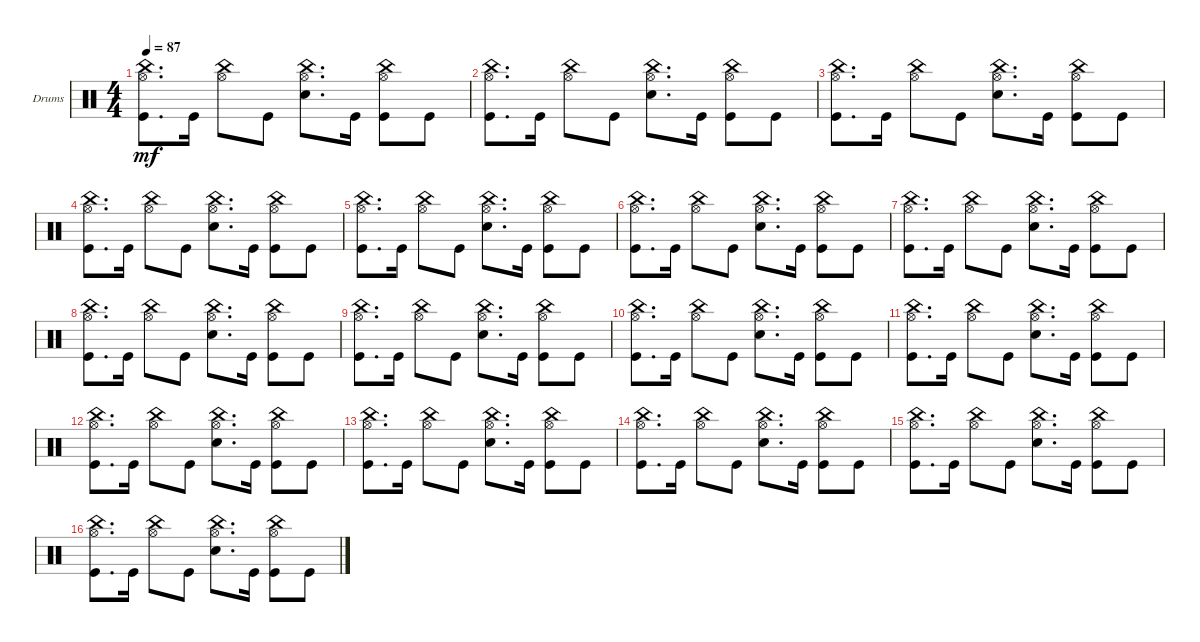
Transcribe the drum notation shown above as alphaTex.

\defaultSystemsLayout 4
\bracketExtendMode groupsimilarinstruments
\firstSystemTrackNameOrientation horizontal
\otherSystemsTrackNameOrientation horizontal
\track ("Drumkit" "Drums") {instrument percussion}
\staff {score}
\articulation defaults
\ts (4 4)
\tempo 87
\clef neutral
\ks c
("Kick (hit)" "China (hit)" "Hi-Hat (open)").8{d dy mf} "Kick (hit)".16 ("China (hit)" "Hi-Hat (open)").8 "Kick (hit)".8 ("Snare (hit) 2" "China (hit)" "Hi-Hat (open)").8{d} "Kick (hit)".16 ("Kick (hit)" "China (hit)" "Hi-Hat (open)").8 "Kick (hit)".8 |
("Kick (hit)" "China (hit)" "Hi-Hat (open)").8{d} "Kick (hit)".16 ("China (hit)" "Hi-Hat (open)").8 "Kick (hit)".8 ("Snare (hit) 2" "China (hit)" "Hi-Hat (open)").8{d} "Kick (hit)".16 ("Kick (hit)" "China (hit)" "Hi-Hat (open)").8 "Kick (hit)".8 |
("Kick (hit)" "China (hit)" "Hi-Hat (open)").8{d} "Kick (hit)".16 ("China (hit)" "Hi-Hat (open)").8 "Kick (hit)".8 ("Snare (hit) 2" "China (hit)" "Hi-Hat (open)").8{d} "Kick (hit)".16 ("Kick (hit)" "China (hit)" "Hi-Hat (open)").8 "Kick (hit)".8 |
("Kick (hit)" "China (hit)" "Hi-Hat (open)").8{d} "Kick (hit)".16 ("China (hit)" "Hi-Hat (open)").8 "Kick (hit)".8 ("Snare (hit) 2" "China (hit)" "Hi-Hat (open)").8{d} "Kick (hit)".16 ("Kick (hit)" "China (hit)" "Hi-Hat (open)").8 "Kick (hit)".8 |
("Kick (hit)" "China (hit)" "Hi-Hat (open)").8{d} "Kick (hit)".16 ("China (hit)" "Hi-Hat (open)").8 "Kick (hit)".8 ("Snare (hit) 2" "China (hit)" "Hi-Hat (open)").8{d} "Kick (hit)".16 ("Kick (hit)" "China (hit)" "Hi-Hat (open)").8 "Kick (hit)".8 |
("Kick (hit)" "China (hit)" "Hi-Hat (open)").8{d} "Kick (hit)".16 ("China (hit)" "Hi-Hat (open)").8 "Kick (hit)".8 ("Snare (hit) 2" "China (hit)" "Hi-Hat (open)").8{d} "Kick (hit)".16 ("Kick (hit)" "China (hit)" "Hi-Hat (open)").8 "Kick (hit)".8 |
("Kick (hit)" "China (hit)" "Hi-Hat (open)").8{d} "Kick (hit)".16 ("China (hit)" "Hi-Hat (open)").8 "Kick (hit)".8 ("Snare (hit) 2" "China (hit)" "Hi-Hat (open)").8{d} "Kick (hit)".16 ("Kick (hit)" "China (hit)" "Hi-Hat (open)").8 "Kick (hit)".8 |
("Kick (hit)" "China (hit)" "Hi-Hat (open)").8{d} "Kick (hit)".16 ("China (hit)" "Hi-Hat (open)").8 "Kick (hit)".8 ("Snare (hit) 2" "China (hit)" "Hi-Hat (open)").8{d} "Kick (hit)".16 ("Kick (hit)" "China (hit)" "Hi-Hat (open)").8 "Kick (hit)".8 |
("Kick (hit)" "China (hit)" "Hi-Hat (open)").8{d} "Kick (hit)".16 ("China (hit)" "Hi-Hat (open)").8 "Kick (hit)".8 ("Snare (hit) 2" "China (hit)" "Hi-Hat (open)").8{d} "Kick (hit)".16 ("Kick (hit)" "China (hit)" "Hi-Hat (open)").8 "Kick (hit)".8 |
("Kick (hit)" "China (hit)" "Hi-Hat (open)").8{d} "Kick (hit)".16 ("China (hit)" "Hi-Hat (open)").8 "Kick (hit)".8 ("Snare (hit) 2" "China (hit)" "Hi-Hat (open)").8{d} "Kick (hit)".16 ("Kick (hit)" "China (hit)" "Hi-Hat (open)").8 "Kick (hit)".8 |
("Kick (hit)" "China (hit)" "Hi-Hat (open)").8{d} "Kick (hit)".16 ("China (hit)" "Hi-Hat (open)").8 "Kick (hit)".8 ("Snare (hit) 2" "China (hit)" "Hi-Hat (open)").8{d} "Kick (hit)".16 ("Kick (hit)" "China (hit)" "Hi-Hat (open)").8 "Kick (hit)".8 |
("Kick (hit)" "China (hit)" "Hi-Hat (open)").8{d} "Kick (hit)".16 ("China (hit)" "Hi-Hat (open)").8 "Kick (hit)".8 ("Snare (hit) 2" "China (hit)" "Hi-Hat (open)").8{d} "Kick (hit)".16 ("Kick (hit)" "China (hit)" "Hi-Hat (open)").8 "Kick (hit)".8 |
("Kick (hit)" "China (hit)" "Hi-Hat (open)").8{d} "Kick (hit)".16 ("China (hit)" "Hi-Hat (open)").8 "Kick (hit)".8 ("Snare (hit) 2" "China (hit)" "Hi-Hat (open)").8{d} "Kick (hit)".16 ("Kick (hit)" "China (hit)" "Hi-Hat (open)").8 "Kick (hit)".8 |
("Kick (hit)" "China (hit)" "Hi-Hat (open)").8{d} "Kick (hit)".16 ("China (hit)" "Hi-Hat (open)").8 "Kick (hit)".8 ("Snare (hit) 2" "China (hit)" "Hi-Hat (open)").8{d} "Kick (hit)".16 ("Kick (hit)" "China (hit)" "Hi-Hat (open)").8 "Kick (hit)".8 |
("Kick (hit)" "China (hit)" "Hi-Hat (open)").8{d} "Kick (hit)".16 ("China (hit)" "Hi-Hat (open)").8 "Kick (hit)".8 ("Snare (hit) 2" "China (hit)" "Hi-Hat (open)").8{d} "Kick (hit)".16 ("Kick (hit)" "China (hit)" "Hi-Hat (open)").8 "Kick (hit)".8 |
("Kick (hit)" "China (hit)" "Hi-Hat (open)").8{d} "Kick (hit)".16 ("China (hit)" "Hi-Hat (open)").8 "Kick (hit)".8 ("Snare (hit) 2" "China (hit)" "Hi-Hat (open)").8{d} "Kick (hit)".16 ("Kick (hit)" "China (hit)" "Hi-Hat (open)").8 "Kick (hit)".8
